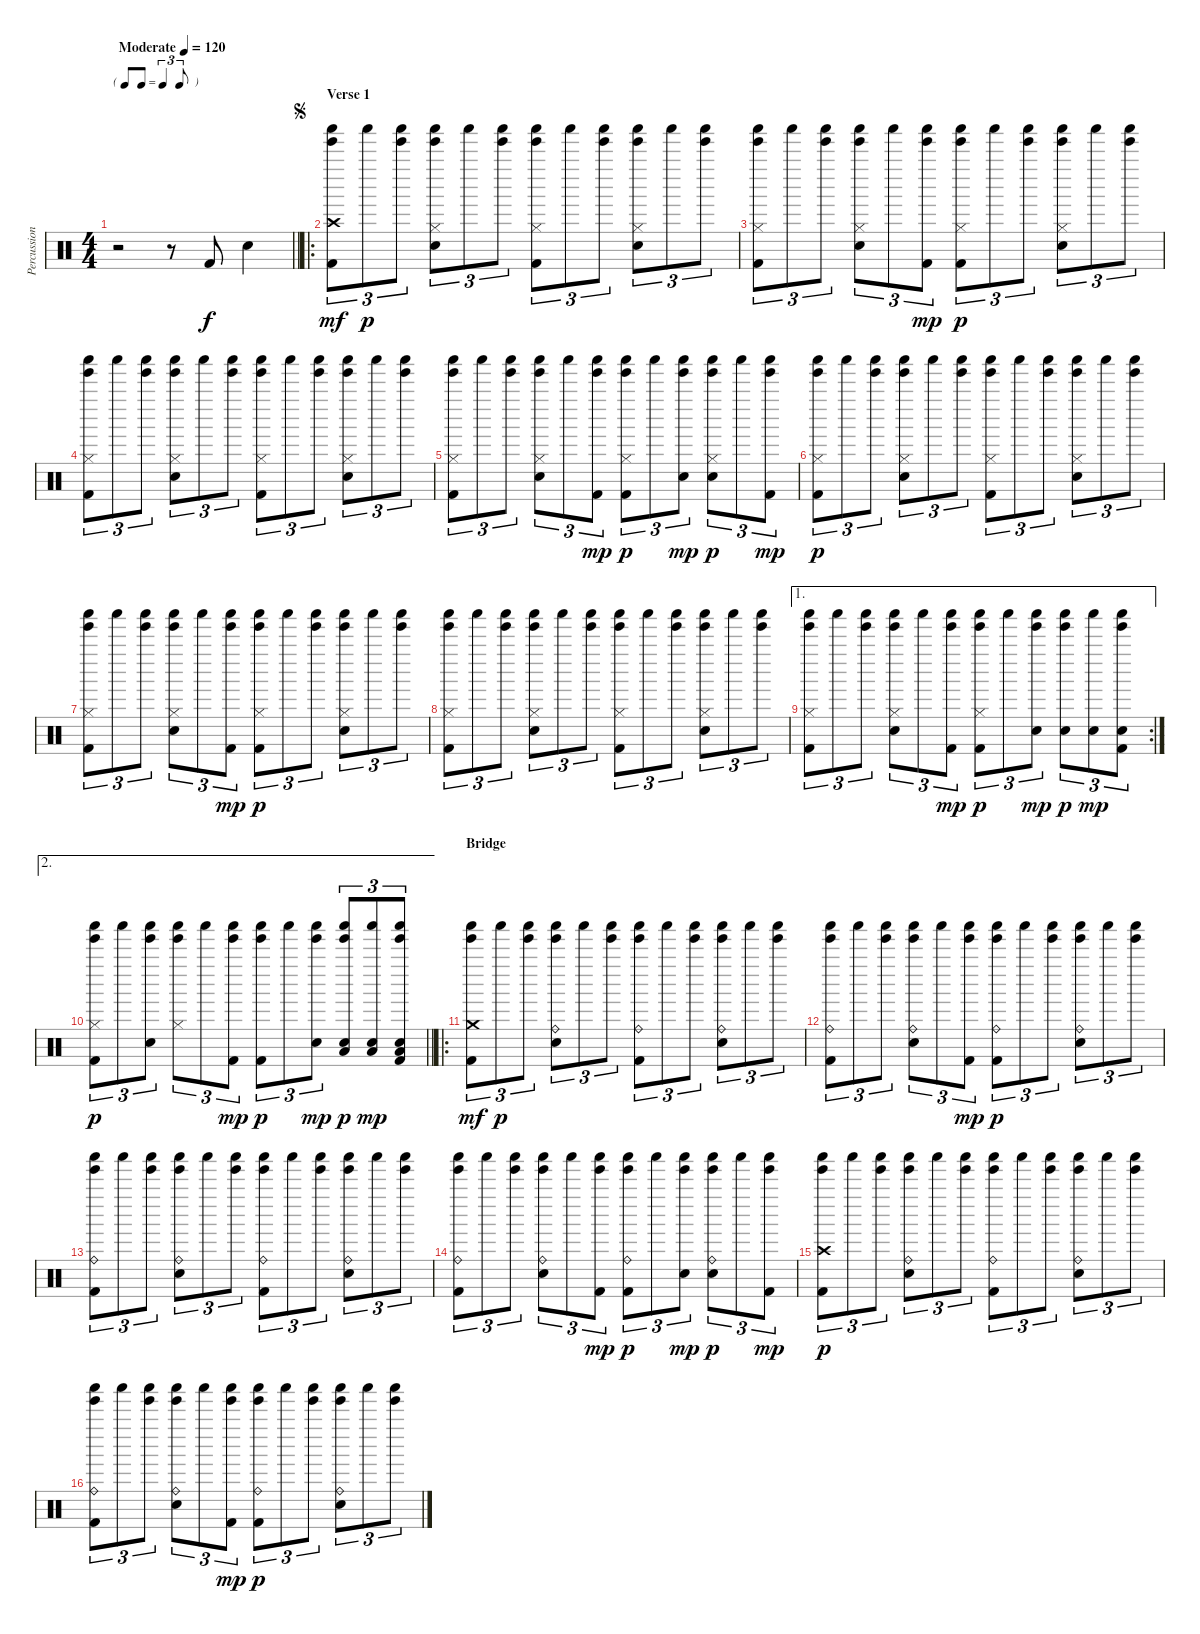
\track ("Percussion" "Percussion") {instrument percussion}
\staff {score}
\articulation defaults
\ts (4 4)
\tf triplet8th
\tempo (120 "Moderate")
\clef neutral
\barLineRight lightlight
\ks c
r.2{dy f} r.8 "Kick (hit) 2".8 "Snare (hit) 2".4 |
\ro
\section ("" "Verse 1")
\jump segno
("Shaker (hit)" "Tinkle Bell (hit)" "Crash high (hit)" "Kick (hit) 2").8{tu (3 2) dy mf} "Shaker (hit)".8{tu (3 2) dy p} ("Shaker (hit)" "Tinkle Bell (hit)").8{tu (3 2)} ("Shaker (hit)" "Tinkle Bell (hit)" "Hi-Hat (closed)" "Snare (hit) 2").8{tu (3 2)} "Shaker (hit)".8{tu (3 2)} ("Shaker (hit)" "Tinkle Bell (hit)").8{tu (3 2)} ("Shaker (hit)" "Tinkle Bell (hit)" "Hi-Hat (closed)" "Kick (hit) 2").8{tu (3 2)} "Shaker (hit)".8{tu (3 2)} ("Shaker (hit)" "Tinkle Bell (hit)").8{tu (3 2)} ("Shaker (hit)" "Tinkle Bell (hit)" "Hi-Hat (closed)" "Snare (hit) 2").8{tu (3 2)} "Shaker (hit)".8{tu (3 2)} ("Shaker (hit)" "Tinkle Bell (hit)").8{tu (3 2)} |
("Shaker (hit)" "Tinkle Bell (hit)" "Hi-Hat (closed)" "Kick (hit) 2").8{tu (3 2)} "Shaker (hit)".8{tu (3 2)} ("Shaker (hit)" "Tinkle Bell (hit)").8{tu (3 2)} ("Shaker (hit)" "Tinkle Bell (hit)" "Hi-Hat (closed)" "Snare (hit) 2").8{tu (3 2)} "Shaker (hit)".8{tu (3 2)} ("Shaker (hit)" "Tinkle Bell (hit)" "Kick (hit) 2").8{tu (3 2) dy mp} ("Shaker (hit)" "Tinkle Bell (hit)" "Hi-Hat (closed)" "Kick (hit) 2").8{tu (3 2) dy p} "Shaker (hit)".8{tu (3 2)} ("Shaker (hit)" "Tinkle Bell (hit)").8{tu (3 2)} ("Shaker (hit)" "Tinkle Bell (hit)" "Hi-Hat (closed)" "Snare (hit) 2").8{tu (3 2)} "Shaker (hit)".8{tu (3 2)} ("Shaker (hit)" "Tinkle Bell (hit)").8{tu (3 2)} |
("Shaker (hit)" "Tinkle Bell (hit)" "Hi-Hat (closed)" "Kick (hit) 2").8{tu (3 2)} "Shaker (hit)".8{tu (3 2)} ("Shaker (hit)" "Tinkle Bell (hit)").8{tu (3 2)} ("Shaker (hit)" "Tinkle Bell (hit)" "Hi-Hat (closed)" "Snare (hit) 2").8{tu (3 2)} "Shaker (hit)".8{tu (3 2)} ("Shaker (hit)" "Tinkle Bell (hit)").8{tu (3 2)} ("Shaker (hit)" "Tinkle Bell (hit)" "Hi-Hat (closed)" "Kick (hit) 2").8{tu (3 2)} "Shaker (hit)".8{tu (3 2)} ("Shaker (hit)" "Tinkle Bell (hit)").8{tu (3 2)} ("Shaker (hit)" "Tinkle Bell (hit)" "Hi-Hat (closed)" "Snare (hit) 2").8{tu (3 2)} "Shaker (hit)".8{tu (3 2)} ("Shaker (hit)" "Tinkle Bell (hit)").8{tu (3 2)} |
("Shaker (hit)" "Tinkle Bell (hit)" "Hi-Hat (closed)" "Kick (hit) 2").8{tu (3 2)} "Shaker (hit)".8{tu (3 2)} ("Shaker (hit)" "Tinkle Bell (hit)").8{tu (3 2)} ("Shaker (hit)" "Tinkle Bell (hit)" "Hi-Hat (closed)" "Snare (hit) 2").8{tu (3 2)} "Shaker (hit)".8{tu (3 2)} ("Shaker (hit)" "Tinkle Bell (hit)" "Kick (hit) 2").8{tu (3 2) dy mp} ("Shaker (hit)" "Tinkle Bell (hit)" "Hi-Hat (closed)" "Kick (hit) 2").8{tu (3 2) dy p} "Shaker (hit)".8{tu (3 2)} ("Shaker (hit)" "Tinkle Bell (hit)" "Snare (hit) 2").8{tu (3 2) dy mp} ("Shaker (hit)" "Tinkle Bell (hit)" "Hi-Hat (closed)" "Snare (hit) 2").8{tu (3 2) dy p} "Shaker (hit)".8{tu (3 2)} ("Shaker (hit)" "Tinkle Bell (hit)" "Kick (hit) 2").8{tu (3 2) dy mp} |
("Shaker (hit)" "Tinkle Bell (hit)" "Hi-Hat (closed)" "Kick (hit) 2").8{tu (3 2) dy p} "Shaker (hit)".8{tu (3 2)} ("Shaker (hit)" "Tinkle Bell (hit)").8{tu (3 2)} ("Shaker (hit)" "Tinkle Bell (hit)" "Hi-Hat (closed)" "Snare (hit) 2").8{tu (3 2)} "Shaker (hit)".8{tu (3 2)} ("Shaker (hit)" "Tinkle Bell (hit)").8{tu (3 2)} ("Shaker (hit)" "Tinkle Bell (hit)" "Hi-Hat (closed)" "Kick (hit) 2").8{tu (3 2)} "Shaker (hit)".8{tu (3 2)} ("Shaker (hit)" "Tinkle Bell (hit)").8{tu (3 2)} ("Shaker (hit)" "Tinkle Bell (hit)" "Hi-Hat (closed)" "Snare (hit) 2").8{tu (3 2)} "Shaker (hit)".8{tu (3 2)} ("Shaker (hit)" "Tinkle Bell (hit)").8{tu (3 2)} |
("Shaker (hit)" "Tinkle Bell (hit)" "Hi-Hat (closed)" "Kick (hit) 2").8{tu (3 2)} "Shaker (hit)".8{tu (3 2)} ("Shaker (hit)" "Tinkle Bell (hit)").8{tu (3 2)} ("Shaker (hit)" "Tinkle Bell (hit)" "Hi-Hat (closed)" "Snare (hit) 2").8{tu (3 2)} "Shaker (hit)".8{tu (3 2)} ("Shaker (hit)" "Tinkle Bell (hit)" "Kick (hit) 2").8{tu (3 2) dy mp} ("Shaker (hit)" "Tinkle Bell (hit)" "Hi-Hat (closed)" "Kick (hit) 2").8{tu (3 2) dy p} "Shaker (hit)".8{tu (3 2)} ("Shaker (hit)" "Tinkle Bell (hit)").8{tu (3 2)} ("Shaker (hit)" "Tinkle Bell (hit)" "Hi-Hat (closed)" "Snare (hit) 2").8{tu (3 2)} "Shaker (hit)".8{tu (3 2)} ("Shaker (hit)" "Tinkle Bell (hit)").8{tu (3 2)} |
("Shaker (hit)" "Tinkle Bell (hit)" "Hi-Hat (closed)" "Kick (hit) 2").8{tu (3 2)} "Shaker (hit)".8{tu (3 2)} ("Shaker (hit)" "Tinkle Bell (hit)").8{tu (3 2)} ("Shaker (hit)" "Tinkle Bell (hit)" "Hi-Hat (closed)" "Snare (hit) 2").8{tu (3 2)} "Shaker (hit)".8{tu (3 2)} ("Shaker (hit)" "Tinkle Bell (hit)").8{tu (3 2)} ("Shaker (hit)" "Tinkle Bell (hit)" "Hi-Hat (closed)" "Kick (hit) 2").8{tu (3 2)} "Shaker (hit)".8{tu (3 2)} ("Shaker (hit)" "Tinkle Bell (hit)").8{tu (3 2)} ("Shaker (hit)" "Tinkle Bell (hit)" "Hi-Hat (closed)" "Snare (hit) 2").8{tu (3 2)} "Shaker (hit)".8{tu (3 2)} ("Shaker (hit)" "Tinkle Bell (hit)").8{tu (3 2)} |
\ae 1
\rc 2
("Shaker (hit)" "Tinkle Bell (hit)" "Hi-Hat (closed)" "Kick (hit) 2").8{tu (3 2)} "Shaker (hit)".8{tu (3 2)} ("Shaker (hit)" "Tinkle Bell (hit)").8{tu (3 2)} ("Shaker (hit)" "Tinkle Bell (hit)" "Hi-Hat (closed)" "Snare (hit) 2").8{tu (3 2)} "Shaker (hit)".8{tu (3 2)} ("Shaker (hit)" "Tinkle Bell (hit)" "Kick (hit) 2").8{tu (3 2) dy mp} ("Shaker (hit)" "Tinkle Bell (hit)" "Hi-Hat (closed)" "Kick (hit) 2").8{tu (3 2) dy p} "Shaker (hit)".8{tu (3 2)} ("Shaker (hit)" "Tinkle Bell (hit)" "Snare (hit) 2").8{tu (3 2) dy mp} ("Shaker (hit)" "Tinkle Bell (hit)" "Snare (hit) 2").8{tu (3 2) dy p} ("Shaker (hit)" "Snare (hit) 2").8{tu (3 2) dy mp} ("Shaker (hit)" "Tinkle Bell (hit)" "Snare (hit) 2" "Kick (hit) 2").8{tu (3 2)} |
\ae 2
\barLineRight lightlight
("Shaker (hit)" "Tinkle Bell (hit)" "Hi-Hat (closed)" "Kick (hit) 2").8{tu (3 2) dy p} "Shaker (hit)".8{tu (3 2)} ("Shaker (hit)" "Tinkle Bell (hit)" "Snare (hit) 2").8{tu (3 2)} ("Shaker (hit)" "Tinkle Bell (hit)" "Hi-Hat (closed)").8{tu (3 2)} "Shaker (hit)".8{tu (3 2)} ("Shaker (hit)" "Tinkle Bell (hit)" "Kick (hit) 2").8{tu (3 2) dy mp} ("Shaker (hit)" "Tinkle Bell (hit)" "Kick (hit) 2").8{tu (3 2) dy p} "Shaker (hit)".8{tu (3 2)} ("Shaker (hit)" "Tinkle Bell (hit)" "Snare (hit) 2").8{tu (3 2) dy mp} ("Shaker (hit)" "Tinkle Bell (hit)" "Low Floor Tom (hit)" "Snare (hit) 2").8{tu (3 2) dy p} ("Shaker (hit)" "Low Floor Tom (hit)" "Snare (hit) 2").8{tu (3 2) dy mp} ("Shaker (hit)" "Tinkle Bell (hit)" "Low Floor Tom (hit)" "Snare (hit) 2" "Kick (hit) 2").8{tu (3 2)} |
\ro
\section ("" "Bridge")
("Shaker (hit)" "Tinkle Bell (hit)" "Crash medium (hit)" "Kick (hit) 2").8{tu (3 2) dy mf} "Shaker (hit)".8{tu (3 2) dy p} ("Shaker (hit)" "Tinkle Bell (hit)").8{tu (3 2)} ("Shaker (hit)" "Tinkle Bell (hit)" "Ride (bell)" "Snare (hit) 2").8{tu (3 2)} "Shaker (hit)".8{tu (3 2)} ("Shaker (hit)" "Tinkle Bell (hit)").8{tu (3 2)} ("Shaker (hit)" "Tinkle Bell (hit)" "Ride (bell)" "Kick (hit) 2").8{tu (3 2)} "Shaker (hit)".8{tu (3 2)} ("Shaker (hit)" "Tinkle Bell (hit)").8{tu (3 2)} ("Shaker (hit)" "Tinkle Bell (hit)" "Ride (bell)" "Snare (hit) 2").8{tu (3 2)} "Shaker (hit)".8{tu (3 2)} ("Shaker (hit)" "Tinkle Bell (hit)").8{tu (3 2)} |
("Shaker (hit)" "Tinkle Bell (hit)" "Ride (bell)" "Kick (hit) 2").8{tu (3 2)} "Shaker (hit)".8{tu (3 2)} ("Shaker (hit)" "Tinkle Bell (hit)").8{tu (3 2)} ("Shaker (hit)" "Tinkle Bell (hit)" "Ride (bell)" "Snare (hit) 2").8{tu (3 2)} "Shaker (hit)".8{tu (3 2)} ("Shaker (hit)" "Tinkle Bell (hit)" "Kick (hit) 2").8{tu (3 2) dy mp} ("Shaker (hit)" "Tinkle Bell (hit)" "Ride (bell)" "Kick (hit) 2").8{tu (3 2) dy p} "Shaker (hit)".8{tu (3 2)} ("Shaker (hit)" "Tinkle Bell (hit)").8{tu (3 2)} ("Shaker (hit)" "Tinkle Bell (hit)" "Ride (bell)" "Snare (hit) 2").8{tu (3 2)} "Shaker (hit)".8{tu (3 2)} ("Shaker (hit)" "Tinkle Bell (hit)").8{tu (3 2)} |
("Shaker (hit)" "Tinkle Bell (hit)" "Ride (bell)" "Kick (hit) 2").8{tu (3 2)} "Shaker (hit)".8{tu (3 2)} ("Shaker (hit)" "Tinkle Bell (hit)").8{tu (3 2)} ("Shaker (hit)" "Tinkle Bell (hit)" "Ride (bell)" "Snare (hit) 2").8{tu (3 2)} "Shaker (hit)".8{tu (3 2)} ("Shaker (hit)" "Tinkle Bell (hit)").8{tu (3 2)} ("Shaker (hit)" "Tinkle Bell (hit)" "Ride (bell)" "Kick (hit) 2").8{tu (3 2)} "Shaker (hit)".8{tu (3 2)} ("Shaker (hit)" "Tinkle Bell (hit)").8{tu (3 2)} ("Shaker (hit)" "Tinkle Bell (hit)" "Ride (bell)" "Snare (hit) 2").8{tu (3 2)} "Shaker (hit)".8{tu (3 2)} ("Shaker (hit)" "Tinkle Bell (hit)").8{tu (3 2)} |
("Shaker (hit)" "Tinkle Bell (hit)" "Ride (bell)" "Kick (hit) 2").8{tu (3 2)} "Shaker (hit)".8{tu (3 2)} ("Shaker (hit)" "Tinkle Bell (hit)").8{tu (3 2)} ("Shaker (hit)" "Tinkle Bell (hit)" "Ride (bell)" "Snare (hit) 2").8{tu (3 2)} "Shaker (hit)".8{tu (3 2)} ("Shaker (hit)" "Tinkle Bell (hit)" "Kick (hit) 2").8{tu (3 2) dy mp} ("Shaker (hit)" "Tinkle Bell (hit)" "Ride (bell)" "Kick (hit) 2").8{tu (3 2) dy p} "Shaker (hit)".8{tu (3 2)} ("Shaker (hit)" "Tinkle Bell (hit)" "Snare (hit) 2").8{tu (3 2) dy mp} ("Shaker (hit)" "Tinkle Bell (hit)" "Ride (bell)" "Snare (hit) 2").8{tu (3 2) dy p} "Shaker (hit)".8{tu (3 2)} ("Shaker (hit)" "Tinkle Bell (hit)" "Kick (hit) 2").8{tu (3 2) dy mp} |
("Shaker (hit)" "Tinkle Bell (hit)" "Crash high (hit)" "Kick (hit) 2").8{tu (3 2) dy p} "Shaker (hit)".8{tu (3 2)} ("Shaker (hit)" "Tinkle Bell (hit)").8{tu (3 2)} ("Shaker (hit)" "Tinkle Bell (hit)" "Ride (bell)" "Snare (hit) 2").8{tu (3 2)} "Shaker (hit)".8{tu (3 2)} ("Shaker (hit)" "Tinkle Bell (hit)").8{tu (3 2)} ("Shaker (hit)" "Tinkle Bell (hit)" "Ride (bell)" "Kick (hit) 2").8{tu (3 2)} "Shaker (hit)".8{tu (3 2)} ("Shaker (hit)" "Tinkle Bell (hit)").8{tu (3 2)} ("Shaker (hit)" "Tinkle Bell (hit)" "Ride (bell)" "Snare (hit) 2").8{tu (3 2)} "Shaker (hit)".8{tu (3 2)} ("Shaker (hit)" "Tinkle Bell (hit)").8{tu (3 2)} |
("Shaker (hit)" "Tinkle Bell (hit)" "Ride (bell)" "Kick (hit) 2").8{tu (3 2)} "Shaker (hit)".8{tu (3 2)} ("Shaker (hit)" "Tinkle Bell (hit)").8{tu (3 2)} ("Shaker (hit)" "Tinkle Bell (hit)" "Ride (bell)" "Snare (hit) 2").8{tu (3 2)} "Shaker (hit)".8{tu (3 2)} ("Shaker (hit)" "Tinkle Bell (hit)" "Kick (hit) 2").8{tu (3 2) dy mp} ("Shaker (hit)" "Tinkle Bell (hit)" "Ride (bell)" "Kick (hit) 2").8{tu (3 2) dy p} "Shaker (hit)".8{tu (3 2)} ("Shaker (hit)" "Tinkle Bell (hit)").8{tu (3 2)} ("Shaker (hit)" "Tinkle Bell (hit)" "Ride (bell)" "Snare (hit) 2").8{tu (3 2)} "Shaker (hit)".8{tu (3 2)} ("Shaker (hit)" "Tinkle Bell (hit)").8{tu (3 2)}
